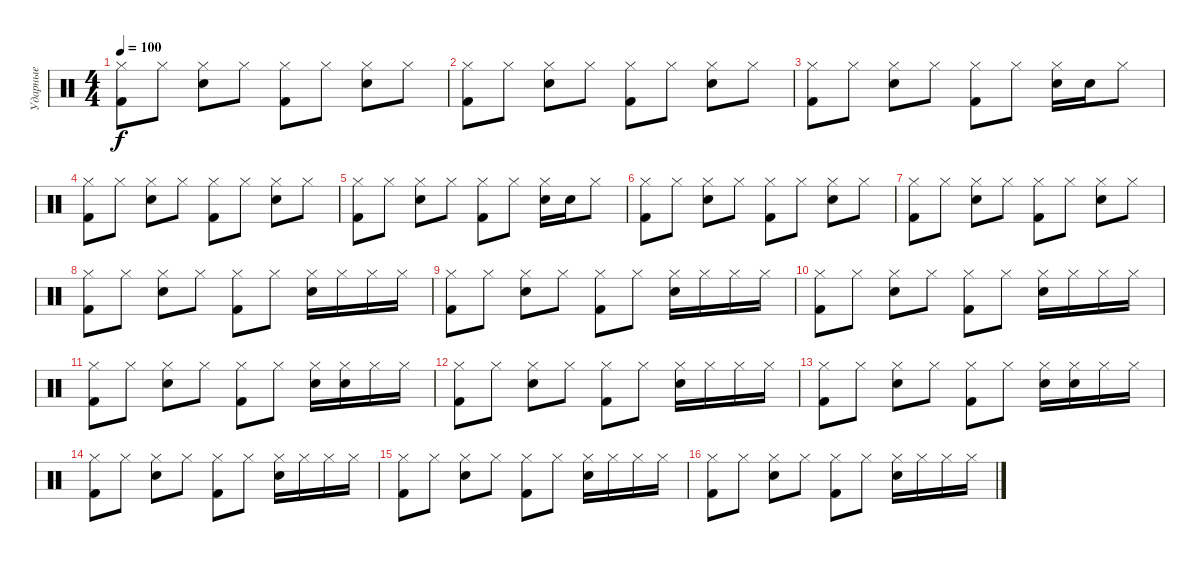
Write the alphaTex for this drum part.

\track ("Ударные" "Ударные") {instrument percussion}
\staff {score}
\articulation defaults
\ts (4 4)
\tempo 100
\clef neutral
\ks c
("Hi-Hat (closed)" "Kick (hit) 2").8{dy f} "Hi-Hat (closed)".8 ("Electric Snare (hit)" "Hi-Hat (closed)").8 "Hi-Hat (closed)".8 ("Hi-Hat (closed)" "Kick (hit) 2").8 "Hi-Hat (closed)".8 ("Electric Snare (hit)" "Hi-Hat (closed)").8 "Hi-Hat (closed)".8 |
("Hi-Hat (closed)" "Kick (hit) 2").8 "Hi-Hat (closed)".8 ("Electric Snare (hit)" "Hi-Hat (closed)").8 "Hi-Hat (closed)".8 ("Hi-Hat (closed)" "Kick (hit) 2").8 "Hi-Hat (closed)".8 ("Electric Snare (hit)" "Hi-Hat (closed)").8 "Hi-Hat (closed)".8 |
("Hi-Hat (closed)" "Kick (hit) 2").8 "Hi-Hat (closed)".8 ("Electric Snare (hit)" "Hi-Hat (closed)").8 "Hi-Hat (closed)".8 ("Hi-Hat (closed)" "Kick (hit) 2").8 "Hi-Hat (closed)".8 ("Electric Snare (hit)" "Hi-Hat (closed)").16 "Electric Snare (hit)".16 "Hi-Hat (closed)".8 |
("Hi-Hat (closed)" "Kick (hit) 2").8 "Hi-Hat (closed)".8 ("Electric Snare (hit)" "Hi-Hat (closed)").8 "Hi-Hat (closed)".8 ("Hi-Hat (closed)" "Kick (hit) 2").8 "Hi-Hat (closed)".8 ("Electric Snare (hit)" "Hi-Hat (closed)").8 "Hi-Hat (closed)".8 |
("Hi-Hat (closed)" "Kick (hit) 2").8 "Hi-Hat (closed)".8 ("Electric Snare (hit)" "Hi-Hat (closed)").8 "Hi-Hat (closed)".8 ("Hi-Hat (closed)" "Kick (hit) 2").8 "Hi-Hat (closed)".8 ("Electric Snare (hit)" "Hi-Hat (closed)").16 "Electric Snare (hit)".16 "Hi-Hat (closed)".8 |
("Hi-Hat (closed)" "Kick (hit) 2").8 "Hi-Hat (closed)".8 ("Electric Snare (hit)" "Hi-Hat (closed)").8 "Hi-Hat (closed)".8 ("Hi-Hat (closed)" "Kick (hit) 2").8 "Hi-Hat (closed)".8 ("Electric Snare (hit)" "Hi-Hat (closed)").8 "Hi-Hat (closed)".8 |
("Hi-Hat (closed)" "Kick (hit) 2").8 "Hi-Hat (closed)".8 ("Electric Snare (hit)" "Hi-Hat (closed)").8 "Hi-Hat (closed)".8 ("Hi-Hat (closed)" "Kick (hit) 2").8 "Hi-Hat (closed)".8 ("Electric Snare (hit)" "Hi-Hat (closed)").8 "Hi-Hat (closed)".8 |
("Hi-Hat (closed)" "Kick (hit) 2").8 "Hi-Hat (closed)".8 ("Electric Snare (hit)" "Hi-Hat (closed)").8 "Hi-Hat (closed)".8 ("Hi-Hat (closed)" "Kick (hit) 2").8 "Hi-Hat (closed)".8 ("Electric Snare (hit)" "Hi-Hat (closed)").16 "Hi-Hat (closed)".16 "Hi-Hat (closed)".16 "Hi-Hat (closed)".16 |
("Hi-Hat (closed)" "Kick (hit) 2").8 "Hi-Hat (closed)".8 ("Electric Snare (hit)" "Hi-Hat (closed)").8 "Hi-Hat (closed)".8 ("Hi-Hat (closed)" "Kick (hit) 2").8 "Hi-Hat (closed)".8 ("Electric Snare (hit)" "Hi-Hat (closed)").16 "Hi-Hat (closed)".16 "Hi-Hat (closed)".16 "Hi-Hat (closed)".16 |
("Hi-Hat (closed)" "Kick (hit) 2").8 "Hi-Hat (closed)".8 ("Electric Snare (hit)" "Hi-Hat (closed)").8 "Hi-Hat (closed)".8 ("Hi-Hat (closed)" "Kick (hit) 2").8 "Hi-Hat (closed)".8 ("Electric Snare (hit)" "Hi-Hat (closed)").16 "Hi-Hat (closed)".16 "Hi-Hat (closed)".16 "Hi-Hat (closed)".16 |
("Hi-Hat (closed)" "Kick (hit) 2").8 "Hi-Hat (closed)".8 ("Electric Snare (hit)" "Hi-Hat (closed)").8 "Hi-Hat (closed)".8 ("Hi-Hat (closed)" "Kick (hit) 2").8 "Hi-Hat (closed)".8 ("Electric Snare (hit)" "Hi-Hat (closed)").16 ("Electric Snare (hit)" "Hi-Hat (closed)").16 "Hi-Hat (closed)".16 "Hi-Hat (closed)".16 |
("Hi-Hat (closed)" "Kick (hit) 2").8 "Hi-Hat (closed)".8 ("Electric Snare (hit)" "Hi-Hat (closed)").8 "Hi-Hat (closed)".8 ("Hi-Hat (closed)" "Kick (hit) 2").8 "Hi-Hat (closed)".8 ("Electric Snare (hit)" "Hi-Hat (closed)").16 "Hi-Hat (closed)".16 "Hi-Hat (closed)".16 "Hi-Hat (closed)".16 |
("Hi-Hat (closed)" "Kick (hit) 2").8 "Hi-Hat (closed)".8 ("Electric Snare (hit)" "Hi-Hat (closed)").8 "Hi-Hat (closed)".8 ("Hi-Hat (closed)" "Kick (hit) 2").8 "Hi-Hat (closed)".8 ("Electric Snare (hit)" "Hi-Hat (closed)").16 ("Electric Snare (hit)" "Hi-Hat (closed)").16 "Hi-Hat (closed)".16 "Hi-Hat (closed)".16 |
("Hi-Hat (closed)" "Kick (hit) 2").8 "Hi-Hat (closed)".8 ("Electric Snare (hit)" "Hi-Hat (closed)").8 "Hi-Hat (closed)".8 ("Hi-Hat (closed)" "Kick (hit) 2").8 "Hi-Hat (closed)".8 ("Electric Snare (hit)" "Hi-Hat (closed)").16 "Hi-Hat (closed)".16 "Hi-Hat (closed)".16 "Hi-Hat (closed)".16 |
("Hi-Hat (closed)" "Kick (hit) 2").8 "Hi-Hat (closed)".8 ("Electric Snare (hit)" "Hi-Hat (closed)").8 "Hi-Hat (closed)".8 ("Hi-Hat (closed)" "Kick (hit) 2").8 "Hi-Hat (closed)".8 ("Electric Snare (hit)" "Hi-Hat (closed)").16 "Hi-Hat (closed)".16 "Hi-Hat (closed)".16 "Hi-Hat (closed)".16 |
("Hi-Hat (closed)" "Kick (hit) 2").8 "Hi-Hat (closed)".8 ("Electric Snare (hit)" "Hi-Hat (closed)").8 "Hi-Hat (closed)".8 ("Hi-Hat (closed)" "Kick (hit) 2").8 "Hi-Hat (closed)".8 ("Electric Snare (hit)" "Hi-Hat (closed)").16 "Hi-Hat (closed)".16 "Hi-Hat (closed)".16 "Hi-Hat (closed)".16
